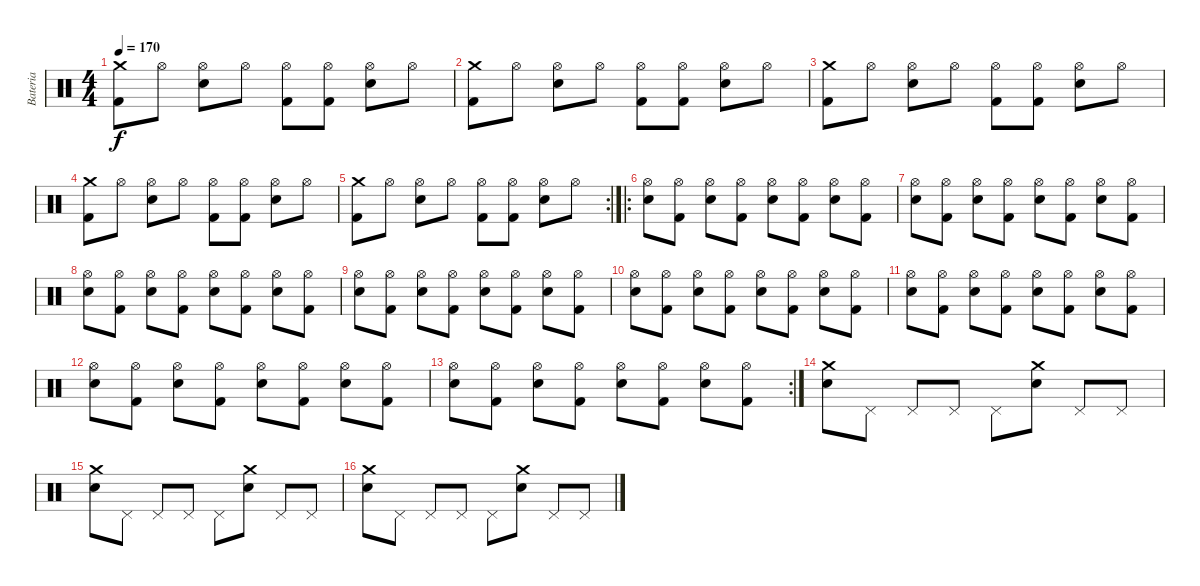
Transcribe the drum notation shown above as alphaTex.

\track ("Bateria" "Bateria") {instrument percussion}
\staff {score}
\articulation defaults
\ts (4 4)
\tempo 170
\clef neutral
\ks c
("Crash medium (hit)" "Kick (hit) 2").8{dy f} "Hi-Hat (open)".8 ("Hi-Hat (open)" "Snare (hit) 2").8 "Hi-Hat (open)".8 ("Hi-Hat (open)" "Kick (hit) 2").8 ("Hi-Hat (open)" "Kick (hit) 2").8 ("Hi-Hat (open)" "Snare (hit) 2").8 "Hi-Hat (open)".8 |
("Crash medium (hit)" "Kick (hit) 2").8 "Hi-Hat (open)".8 ("Hi-Hat (open)" "Snare (hit) 2").8 "Hi-Hat (open)".8 ("Hi-Hat (open)" "Kick (hit) 2").8 ("Hi-Hat (open)" "Kick (hit) 2").8 ("Hi-Hat (open)" "Snare (hit) 2").8 "Hi-Hat (open)".8 |
("Crash medium (hit)" "Kick (hit) 2").8 "Hi-Hat (open)".8 ("Hi-Hat (open)" "Snare (hit) 2").8 "Hi-Hat (open)".8 ("Hi-Hat (open)" "Kick (hit) 2").8 ("Hi-Hat (open)" "Kick (hit) 2").8 ("Hi-Hat (open)" "Snare (hit) 2").8 "Hi-Hat (open)".8 |
("Crash medium (hit)" "Kick (hit) 2").8 "Hi-Hat (open)".8 ("Hi-Hat (open)" "Snare (hit) 2").8 "Hi-Hat (open)".8 ("Hi-Hat (open)" "Kick (hit) 2").8 ("Hi-Hat (open)" "Kick (hit) 2").8 ("Hi-Hat (open)" "Snare (hit) 2").8 "Hi-Hat (open)".8 |
\rc 2
("Crash medium (hit)" "Kick (hit) 2").8 "Hi-Hat (open)".8 ("Hi-Hat (open)" "Snare (hit) 2").8 "Hi-Hat (open)".8 ("Hi-Hat (open)" "Kick (hit) 2").8 ("Hi-Hat (open)" "Kick (hit) 2").8 ("Hi-Hat (open)" "Snare (hit) 2").8 "Hi-Hat (open)".8 |
\ro
("Hi-Hat (open)" "Snare (hit) 2").8 ("Hi-Hat (open)" "Kick (hit) 2").8 ("Hi-Hat (open)" "Snare (hit) 2").8 ("Hi-Hat (open)" "Kick (hit) 2").8 ("Hi-Hat (open)" "Snare (hit) 2").8 ("Hi-Hat (open)" "Kick (hit) 2").8 ("Hi-Hat (open)" "Snare (hit) 2").8 ("Hi-Hat (open)" "Kick (hit) 2").8 |
("Hi-Hat (open)" "Snare (hit) 2").8 ("Hi-Hat (open)" "Kick (hit) 2").8 ("Hi-Hat (open)" "Snare (hit) 2").8 ("Hi-Hat (open)" "Kick (hit) 2").8 ("Hi-Hat (open)" "Snare (hit) 2").8 ("Hi-Hat (open)" "Kick (hit) 2").8 ("Hi-Hat (open)" "Snare (hit) 2").8 ("Hi-Hat (open)" "Kick (hit) 2").8 |
("Hi-Hat (open)" "Snare (hit) 2").8 ("Hi-Hat (open)" "Kick (hit) 2").8 ("Hi-Hat (open)" "Snare (hit) 2").8 ("Hi-Hat (open)" "Kick (hit) 2").8 ("Hi-Hat (open)" "Snare (hit) 2").8 ("Hi-Hat (open)" "Kick (hit) 2").8 ("Hi-Hat (open)" "Snare (hit) 2").8 ("Hi-Hat (open)" "Kick (hit) 2").8 |
("Hi-Hat (open)" "Snare (hit) 2").8 ("Hi-Hat (open)" "Kick (hit) 2").8 ("Hi-Hat (open)" "Snare (hit) 2").8 ("Hi-Hat (open)" "Kick (hit) 2").8 ("Hi-Hat (open)" "Snare (hit) 2").8 ("Hi-Hat (open)" "Kick (hit) 2").8 ("Hi-Hat (open)" "Snare (hit) 2").8 ("Hi-Hat (open)" "Kick (hit) 2").8 |
("Hi-Hat (open)" "Snare (hit) 2").8 ("Hi-Hat (open)" "Kick (hit) 2").8 ("Hi-Hat (open)" "Snare (hit) 2").8 ("Hi-Hat (open)" "Kick (hit) 2").8 ("Hi-Hat (open)" "Snare (hit) 2").8 ("Hi-Hat (open)" "Kick (hit) 2").8 ("Hi-Hat (open)" "Snare (hit) 2").8 ("Hi-Hat (open)" "Kick (hit) 2").8 |
("Hi-Hat (open)" "Snare (hit) 2").8 ("Hi-Hat (open)" "Kick (hit) 2").8 ("Hi-Hat (open)" "Snare (hit) 2").8 ("Hi-Hat (open)" "Kick (hit) 2").8 ("Hi-Hat (open)" "Snare (hit) 2").8 ("Hi-Hat (open)" "Kick (hit) 2").8 ("Hi-Hat (open)" "Snare (hit) 2").8 ("Hi-Hat (open)" "Kick (hit) 2").8 |
("Hi-Hat (open)" "Snare (hit) 2").8 ("Hi-Hat (open)" "Kick (hit) 2").8 ("Hi-Hat (open)" "Snare (hit) 2").8 ("Hi-Hat (open)" "Kick (hit) 2").8 ("Hi-Hat (open)" "Snare (hit) 2").8 ("Hi-Hat (open)" "Kick (hit) 2").8 ("Hi-Hat (open)" "Snare (hit) 2").8 ("Hi-Hat (open)" "Kick (hit) 2").8 |
\rc 2
("Hi-Hat (open)" "Snare (hit) 2").8 ("Hi-Hat (open)" "Kick (hit) 2").8 ("Hi-Hat (open)" "Snare (hit) 2").8 ("Hi-Hat (open)" "Kick (hit) 2").8 ("Hi-Hat (open)" "Snare (hit) 2").8 ("Hi-Hat (open)" "Kick (hit) 2").8 ("Hi-Hat (open)" "Snare (hit) 2").8 ("Hi-Hat (open)" "Kick (hit) 2").8 |
("Crash medium (hit)" "Snare (hit) 2").8 "Pedal Hi-Hat (hit)".8 "Pedal Hi-Hat (hit)".8 "Pedal Hi-Hat (hit)".8 "Pedal Hi-Hat (hit)".8 ("Crash medium (hit)" "Snare (hit) 2").8 "Pedal Hi-Hat (hit)".8 "Pedal Hi-Hat (hit)".8 |
("Crash medium (hit)" "Snare (hit) 2").8 "Pedal Hi-Hat (hit)".8 "Pedal Hi-Hat (hit)".8 "Pedal Hi-Hat (hit)".8 "Pedal Hi-Hat (hit)".8 ("Crash medium (hit)" "Snare (hit) 2").8 "Pedal Hi-Hat (hit)".8 "Pedal Hi-Hat (hit)".8 |
("Crash medium (hit)" "Snare (hit) 2").8 "Pedal Hi-Hat (hit)".8 "Pedal Hi-Hat (hit)".8 "Pedal Hi-Hat (hit)".8 "Pedal Hi-Hat (hit)".8 ("Crash medium (hit)" "Snare (hit) 2").8 "Pedal Hi-Hat (hit)".8 "Pedal Hi-Hat (hit)".8
